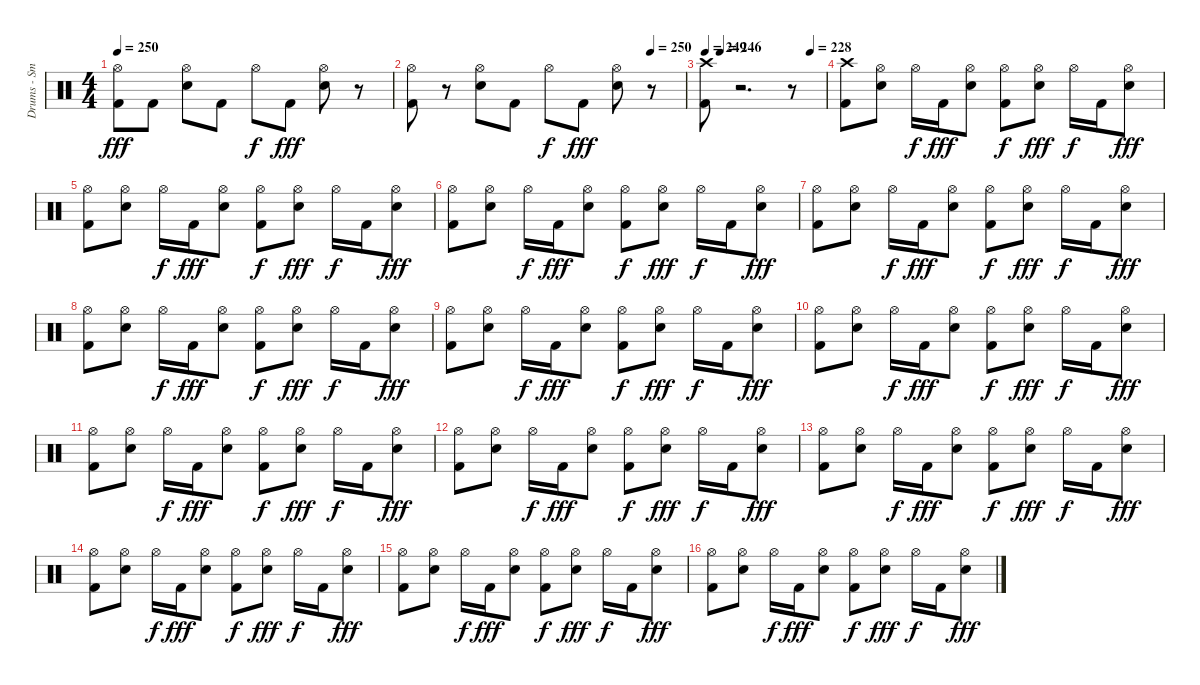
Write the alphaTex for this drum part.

\track ("Drums - Smelly" "Drums - Sm") {instrument percussion}
\staff {score}
\articulation defaults
\ts (4 4)
\tempo 250
\clef neutral
\ks c
("Hi-Hat (open)" "Kick (hit) 2").8{dy fff} "Kick (hit) 2".8 ("Electric Snare (hit)" "Hi-Hat (open)").8 "Kick (hit) 2".8 "Hi-Hat (open)".8{dy f} "Kick (hit) 2".8{dy fff} ("Electric Snare (hit)" "Hi-Hat (open)").8 r.8 |
\tempo (250 0.875)
("Kick (hit) 2" "Hi-Hat (open)").8 r.8 ("Hi-Hat (open)" "Electric Snare (hit)").8 "Kick (hit) 2".8 "Hi-Hat (open)".8{dy f} "Kick (hit) 2".8{dy fff} ("Hi-Hat (open)" "Electric Snare (hit)").8 r.8 |
\tempo 249
\tempo (246 0.125)
\tempo (228 0.875)
("Crash high (hit)" "Kick (hit) 2").8 r.2{d} r.8 |
("Crash high (hit)" "Kick (hit) 2").8 ("Hi-Hat (open)" "Electric Snare (hit)").8 "Hi-Hat (open)".16{dy f} "Kick (hit) 2".16{dy fff} ("Hi-Hat (open)" "Electric Snare (hit)").8 ("Hi-Hat (open)" "Kick (hit) 2").8{dy f} ("Hi-Hat (open)" "Electric Snare (hit)").8{dy fff} "Hi-Hat (open)".16{dy f} "Kick (hit) 2".16 ("Hi-Hat (open)" "Electric Snare (hit)").8{dy fff} |
("Hi-Hat (open)" "Kick (hit) 2").8 ("Hi-Hat (open)" "Electric Snare (hit)").8 "Hi-Hat (open)".16{dy f} "Kick (hit) 2".16{dy fff} ("Hi-Hat (open)" "Electric Snare (hit)").8 ("Hi-Hat (open)" "Kick (hit) 2").8{dy f} ("Hi-Hat (open)" "Electric Snare (hit)").8{dy fff} "Hi-Hat (open)".16{dy f} "Kick (hit) 2".16 ("Hi-Hat (open)" "Electric Snare (hit)").8{dy fff} |
("Hi-Hat (open)" "Kick (hit) 2").8 ("Hi-Hat (open)" "Electric Snare (hit)").8 "Hi-Hat (open)".16{dy f} "Kick (hit) 2".16{dy fff} ("Hi-Hat (open)" "Electric Snare (hit)").8 ("Hi-Hat (open)" "Kick (hit) 2").8{dy f} ("Hi-Hat (open)" "Electric Snare (hit)").8{dy fff} "Hi-Hat (open)".16{dy f} "Kick (hit) 2".16 ("Hi-Hat (open)" "Electric Snare (hit)").8{dy fff} |
("Hi-Hat (open)" "Kick (hit) 2").8 ("Hi-Hat (open)" "Electric Snare (hit)").8 "Hi-Hat (open)".16{dy f} "Kick (hit) 2".16{dy fff} ("Hi-Hat (open)" "Electric Snare (hit)").8 ("Hi-Hat (open)" "Kick (hit) 2").8{dy f} ("Hi-Hat (open)" "Electric Snare (hit)").8{dy fff} "Hi-Hat (open)".16{dy f} "Kick (hit) 2".16 ("Hi-Hat (open)" "Electric Snare (hit)").8{dy fff} |
("Hi-Hat (open)" "Kick (hit) 2").8 ("Hi-Hat (open)" "Electric Snare (hit)").8 "Hi-Hat (open)".16{dy f} "Kick (hit) 2".16{dy fff} ("Hi-Hat (open)" "Electric Snare (hit)").8 ("Hi-Hat (open)" "Kick (hit) 2").8{dy f} ("Hi-Hat (open)" "Electric Snare (hit)").8{dy fff} "Hi-Hat (open)".16{dy f} "Kick (hit) 2".16 ("Hi-Hat (open)" "Electric Snare (hit)").8{dy fff} |
("Hi-Hat (open)" "Kick (hit) 2").8 ("Hi-Hat (open)" "Electric Snare (hit)").8 "Hi-Hat (open)".16{dy f} "Kick (hit) 2".16{dy fff} ("Hi-Hat (open)" "Electric Snare (hit)").8 ("Hi-Hat (open)" "Kick (hit) 2").8{dy f} ("Hi-Hat (open)" "Electric Snare (hit)").8{dy fff} "Hi-Hat (open)".16{dy f} "Kick (hit) 2".16 ("Hi-Hat (open)" "Electric Snare (hit)").8{dy fff} |
("Hi-Hat (open)" "Kick (hit) 2").8 ("Hi-Hat (open)" "Electric Snare (hit)").8 "Hi-Hat (open)".16{dy f} "Kick (hit) 2".16{dy fff} ("Hi-Hat (open)" "Electric Snare (hit)").8 ("Hi-Hat (open)" "Kick (hit) 2").8{dy f} ("Hi-Hat (open)" "Electric Snare (hit)").8{dy fff} "Hi-Hat (open)".16{dy f} "Kick (hit) 2".16 ("Hi-Hat (open)" "Electric Snare (hit)").8{dy fff} |
("Hi-Hat (open)" "Kick (hit) 2").8 ("Hi-Hat (open)" "Electric Snare (hit)").8 "Hi-Hat (open)".16{dy f} "Kick (hit) 2".16{dy fff} ("Hi-Hat (open)" "Electric Snare (hit)").8 ("Hi-Hat (open)" "Kick (hit) 2").8{dy f} ("Hi-Hat (open)" "Electric Snare (hit)").8{dy fff} "Hi-Hat (open)".16{dy f} "Kick (hit) 2".16 ("Hi-Hat (open)" "Electric Snare (hit)").8{dy fff} |
("Hi-Hat (open)" "Kick (hit) 2").8 ("Hi-Hat (open)" "Electric Snare (hit)").8 "Hi-Hat (open)".16{dy f} "Kick (hit) 2".16{dy fff} ("Hi-Hat (open)" "Electric Snare (hit)").8 ("Hi-Hat (open)" "Kick (hit) 2").8{dy f} ("Hi-Hat (open)" "Electric Snare (hit)").8{dy fff} "Hi-Hat (open)".16{dy f} "Kick (hit) 2".16 ("Hi-Hat (open)" "Electric Snare (hit)").8{dy fff} |
("Hi-Hat (open)" "Kick (hit) 2").8 ("Hi-Hat (open)" "Electric Snare (hit)").8 "Hi-Hat (open)".16{dy f} "Kick (hit) 2".16{dy fff} ("Hi-Hat (open)" "Electric Snare (hit)").8 ("Hi-Hat (open)" "Kick (hit) 2").8{dy f} ("Hi-Hat (open)" "Electric Snare (hit)").8{dy fff} "Hi-Hat (open)".16{dy f} "Kick (hit) 2".16 ("Hi-Hat (open)" "Electric Snare (hit)").8{dy fff} |
("Hi-Hat (open)" "Kick (hit) 2").8 ("Hi-Hat (open)" "Electric Snare (hit)").8 "Hi-Hat (open)".16{dy f} "Kick (hit) 2".16{dy fff} ("Hi-Hat (open)" "Electric Snare (hit)").8 ("Hi-Hat (open)" "Kick (hit) 2").8{dy f} ("Hi-Hat (open)" "Electric Snare (hit)").8{dy fff} "Hi-Hat (open)".16{dy f} "Kick (hit) 2".16 ("Hi-Hat (open)" "Electric Snare (hit)").8{dy fff} |
("Hi-Hat (open)" "Kick (hit) 2").8 ("Hi-Hat (open)" "Electric Snare (hit)").8 "Hi-Hat (open)".16{dy f} "Kick (hit) 2".16{dy fff} ("Hi-Hat (open)" "Electric Snare (hit)").8 ("Hi-Hat (open)" "Kick (hit) 2").8{dy f} ("Hi-Hat (open)" "Electric Snare (hit)").8{dy fff} "Hi-Hat (open)".16{dy f} "Kick (hit) 2".16 ("Hi-Hat (open)" "Electric Snare (hit)").8{dy fff} |
("Hi-Hat (open)" "Kick (hit) 2").8 ("Hi-Hat (open)" "Electric Snare (hit)").8 "Hi-Hat (open)".16{dy f} "Kick (hit) 2".16{dy fff} ("Hi-Hat (open)" "Electric Snare (hit)").8 ("Hi-Hat (open)" "Kick (hit) 2").8{dy f} ("Hi-Hat (open)" "Electric Snare (hit)").8{dy fff} "Hi-Hat (open)".16{dy f} "Kick (hit) 2".16 ("Hi-Hat (open)" "Electric Snare (hit)").8{dy fff}
